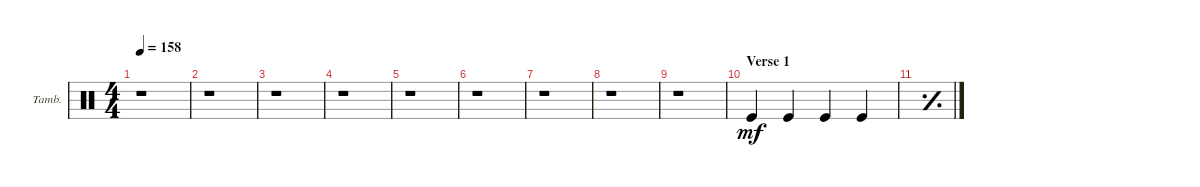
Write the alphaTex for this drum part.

\defaultSystemsLayout 4
\bracketExtendMode groupsimilarinstruments
\firstSystemTrackNameOrientation horizontal
\otherSystemsTrackNameOrientation horizontal
\track ("Tambourine" "Tamb.") {instrument percussion}
\staff {score}
\articulation defaults
\ts (4 4)
\tempo 158
\clef neutral
\ks c
r.1{dy mf} |
r.1 |
r.1 |
r.1 |
r.1 |
r.1 |
r.1 |
r.1 |
r.1 |
\section ("" "Verse 1")
"Kick (hit)".4 "Kick (hit)".4 "Kick (hit)".4 "Kick (hit)".4 |
\simile simple
